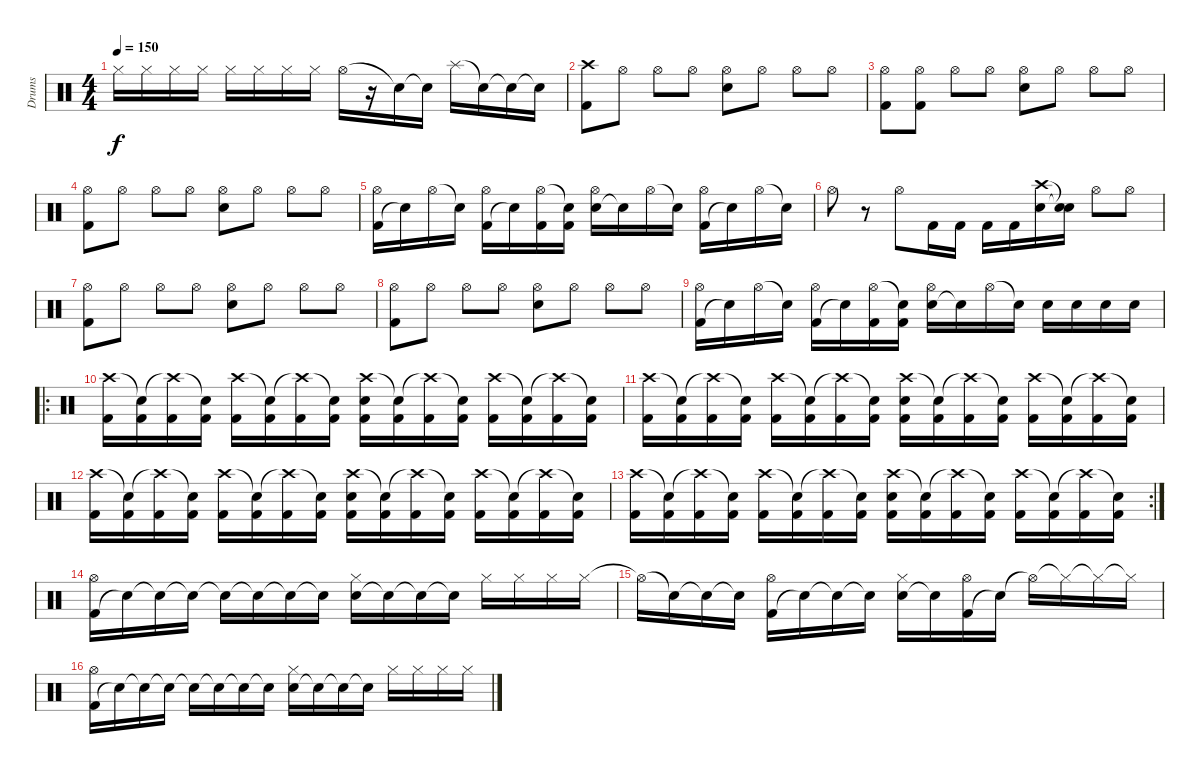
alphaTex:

\track ("Drums" "Drums") {instrument percussion}
\staff {score}
\articulation defaults
\ts (4 4)
\tempo 150
\clef neutral
\ks c "Hi-Hat (closed)".16{dy f} "Hi-Hat (closed)".16 "Hi-Hat (closed)".16 "Hi-Hat (closed)".16 "Hi-Hat (closed)".16 "Hi-Hat (closed)".16 "Hi-Hat (closed)".16 "Hi-Hat (closed)".16 "Hi-Hat (open)".16
r.16 "Snare (hit)"{t}.16 "Snare (hit)"{t}.16 "Splash (hit)".16 "Snare (hit)"{t}.16 "Snare (hit)"{t}.16 "Snare (hit)"{t}.16 |
("Kick (hit) 2" "Crash high (hit)").8 "Hi-Hat (open)".8 "Hi-Hat (open)".8 "Hi-Hat (open)".8 ("Electric Snare (hit)" "Hi-Hat (open)").8 "Hi-Hat (open)".8 "Hi-Hat (open)".8 "Hi-Hat (open)".8 |
("Kick (hit) 2" "Hi-Hat (open)").8 ("Kick (hit) 2" "Hi-Hat (open)").8 "Hi-Hat (open)".8 "Hi-Hat (open)".8 ("Electric Snare (hit)" "Hi-Hat (open)").8 "Hi-Hat (open)".8 "Hi-Hat (open)".8 "Hi-Hat (open)".8 |
("Kick (hit) 2" "Hi-Hat (open)").8 "Hi-Hat (open)".8 "Hi-Hat (open)".8 "Hi-Hat (open)".8 ("Electric Snare (hit)" "Hi-Hat (open)").8 "Hi-Hat (open)".8 "Hi-Hat (open)".8 "Hi-Hat (open)".8 |
("Kick (hit) 2" "Hi-Hat (open)").16 "Snare (hit)"{t}.16 "Hi-Hat (open)".16 "Snare (hit)"{t}.16 ("Kick (hit) 2" "Hi-Hat (open)").16 "Snare (hit)"{t}.16 ("Kick (hit) 2" "Hi-Hat (open)").16 ("Kick (hit) 2" "Snare (hit)"{t}).16 ("Electric Snare (hit)" "Hi-Hat (open)").16 "Snare (hit)"{t}.16 "Hi-Hat (open)".16 "Snare (hit)"{t}.16 ("Kick (hit) 2" "Hi-Hat (open)").16 "Snare (hit)"{t}.16 "Hi-Hat (open)".16 "Snare (hit)"{t}.16 |
"Hi-Hat (open)".8 r.8 "Hi-Hat (open)".8 "Kick (hit) 2".16 "Kick (hit) 2".16 "Kick (hit) 2".16 "Kick (hit) 2".16 ("Electric Snare (hit)" "Crash high (hit)").16 ("Snare (hit)"{t} "Snare (hit)"{t}).16 "Hi-Hat (open)".8 "Hi-Hat (open)".8 |
("Kick (hit) 2" "Hi-Hat (open)").8 "Hi-Hat (open)".8 "Hi-Hat (open)".8 "Hi-Hat (open)".8 ("Electric Snare (hit)" "Hi-Hat (open)").8 "Hi-Hat (open)".8 "Hi-Hat (open)".8 "Hi-Hat (open)".8 |
("Kick (hit) 2" "Hi-Hat (open)").8 "Hi-Hat (open)".8 "Hi-Hat (open)".8 "Hi-Hat (open)".8 ("Electric Snare (hit)" "Hi-Hat (open)").8 "Hi-Hat (open)".8 "Hi-Hat (open)".8 "Hi-Hat (open)".8 |
("Kick (hit) 2" "Hi-Hat (open)").16 "Snare (hit)"{t}.16 "Hi-Hat (open)".16 "Snare (hit)"{t}.16 ("Kick (hit) 2" "Hi-Hat (open)").16 "Snare (hit)"{t}.16 ("Kick (hit) 2" "Hi-Hat (open)").16 ("Kick (hit) 2" "Snare (hit)"{t}).16 ("Electric Snare (hit)" "Hi-Hat (open)").16 "Snare (hit)"{t}.16 "Hi-Hat (open)".16 "Snare (hit)"{t}.16 "Electric Snare (hit)".16 "Electric Snare (hit)".16 "Electric Snare (hit)".16 "Electric Snare (hit)".16 |
\ro
("Kick (hit) 2" "Crash high (hit)").16 ("Kick (hit) 2" "Snare (hit)"{t}).16 ("Kick (hit) 2" "Crash high (hit)"{t}).16 ("Kick (hit) 2" "Snare (hit)"{t}).16 ("Kick (hit) 2" "Crash high (hit)").16 ("Kick (hit) 2" "Snare (hit)"{t}).16 ("Kick (hit) 2" "Crash high (hit)"{t}).16 ("Kick (hit) 2" "Snare (hit)"{t}).16 ("Kick (hit) 2" "Crash high (hit)" "Electric Snare (hit)").16 ("Kick (hit) 2" "Snare (hit)"{t}).16 ("Kick (hit) 2" "Crash high (hit)"{t}).16 ("Kick (hit) 2" "Snare (hit)"{t}).16 ("Kick (hit) 2" "Crash high (hit)").16 ("Kick (hit) 2" "Snare (hit)"{t}).16 ("Kick (hit) 2" "Crash high (hit)"{t}).16 ("Kick (hit) 2" "Snare (hit)"{t}).16 |
("Kick (hit) 2" "Crash high (hit)").16 ("Kick (hit) 2" "Snare (hit)"{t}).16 ("Kick (hit) 2" "Crash high (hit)"{t}).16 ("Kick (hit) 2" "Snare (hit)"{t}).16 ("Kick (hit) 2" "Crash high (hit)").16 ("Kick (hit) 2" "Snare (hit)"{t}).16 ("Kick (hit) 2" "Crash high (hit)"{t}).16 ("Kick (hit) 2" "Snare (hit)"{t}).16 ("Kick (hit) 2" "Crash high (hit)" "Electric Snare (hit)").16 ("Kick (hit) 2" "Snare (hit)"{t}).16 ("Kick (hit) 2" "Crash high (hit)"{t}).16 ("Kick (hit) 2" "Snare (hit)"{t}).16 ("Kick (hit) 2" "Crash high (hit)").16 ("Kick (hit) 2" "Snare (hit)"{t}).16 ("Kick (hit) 2" "Crash high (hit)"{t}).16 ("Kick (hit) 2" "Snare (hit)"{t}).16 |
("Kick (hit) 2" "Crash high (hit)").16 ("Kick (hit) 2" "Snare (hit)"{t}).16 ("Kick (hit) 2" "Crash high (hit)"{t}).16 ("Kick (hit) 2" "Snare (hit)"{t}).16 ("Kick (hit) 2" "Crash high (hit)").16 ("Kick (hit) 2" "Snare (hit)"{t}).16 ("Kick (hit) 2" "Crash high (hit)"{t}).16 ("Kick (hit) 2" "Snare (hit)"{t}).16 ("Kick (hit) 2" "Crash high (hit)" "Electric Snare (hit)").16 ("Kick (hit) 2" "Snare (hit)"{t}).16 ("Kick (hit) 2" "Crash high (hit)"{t}).16 ("Kick (hit) 2" "Snare (hit)"{t}).16 ("Kick (hit) 2" "Crash high (hit)").16 ("Kick (hit) 2" "Snare (hit)"{t}).16 ("Kick (hit) 2" "Crash high (hit)"{t}).16 ("Kick (hit) 2" "Snare (hit)"{t}).16 |
\rc 2
("Kick (hit) 2" "Crash high (hit)").16 ("Kick (hit) 2" "Snare (hit)"{t}).16 ("Kick (hit) 2" "Crash high (hit)"{t}).16 ("Kick (hit) 2" "Snare (hit)"{t}).16 ("Kick (hit) 2" "Crash high (hit)").16 ("Kick (hit) 2" "Snare (hit)"{t}).16 ("Kick (hit) 2" "Crash high (hit)"{t}).16 ("Kick (hit) 2" "Snare (hit)"{t}).16 ("Kick (hit) 2" "Crash high (hit)" "Electric Snare (hit)").16 ("Kick (hit) 2" "Snare (hit)"{t}).16 ("Kick (hit) 2" "Crash high (hit)"{t}).16 ("Kick (hit) 2" "Snare (hit)"{t}).16 ("Kick (hit) 2" "Crash high (hit)").16 ("Kick (hit) 2" "Snare (hit)"{t}).16 ("Kick (hit) 2" "Crash high (hit)"{t}).16 ("Kick (hit) 2" "Snare (hit)"{t}).16 |
("Kick (hit) 2" "Hi-Hat (open)").16 "Snare (hit)"{t}.16 "Snare (hit)"{t}.16 "Snare (hit)"{t}.16 "Snare (hit)"{t}.16 "Snare (hit)"{t}.16 "Snare (hit)"{t}.16 "Snare (hit)"{t}.16 ("Electric Snare (hit)" "Hi-Hat (closed)").16 "Snare (hit)"{t}.16 "Snare (hit)"{t}.16 "Snare (hit)"{t}.16 "Hi-Hat (closed)".16 "Hi-Hat (closed)".16 "Hi-Hat (closed)".16 "Hi-Hat (closed)".16 |
"Hi-Hat (open)"{t}.16 "Snare (hit)"{t}.16 "Snare (hit)"{t}.16 "Snare (hit)"{t}.16 ("Kick (hit) 2" "Hi-Hat (open)").16 "Snare (hit)"{t}.16 "Snare (hit)"{t}.16 "Snare (hit)"{t}.16 ("Electric Snare (hit)" "Hi-Hat (closed)").16 "Snare (hit)"{t}.16 ("Kick (hit) 2" "Hi-Hat (open)").16 "Snare (hit)"{t}.16 "Hi-Hat (open)"{t}.16 "Hi-Hat (closed)"{t}.16 "Hi-Hat (closed)"{t}.16 "Hi-Hat (closed)"{t}.16 |
("Kick (hit) 2" "Hi-Hat (open)").16 "Snare (hit)"{t}.16 "Snare (hit)"{t}.16 "Snare (hit)"{t}.16 "Snare (hit)"{t}.16 "Snare (hit)"{t}.16 "Snare (hit)"{t}.16 "Snare (hit)"{t}.16 ("Electric Snare (hit)" "Hi-Hat (closed)").16 "Snare (hit)"{t}.16 "Snare (hit)"{t}.16 "Snare (hit)"{t}.16 "Hi-Hat (closed)".16 "Hi-Hat (closed)".16 "Hi-Hat (closed)".16 "Hi-Hat (closed)".16
